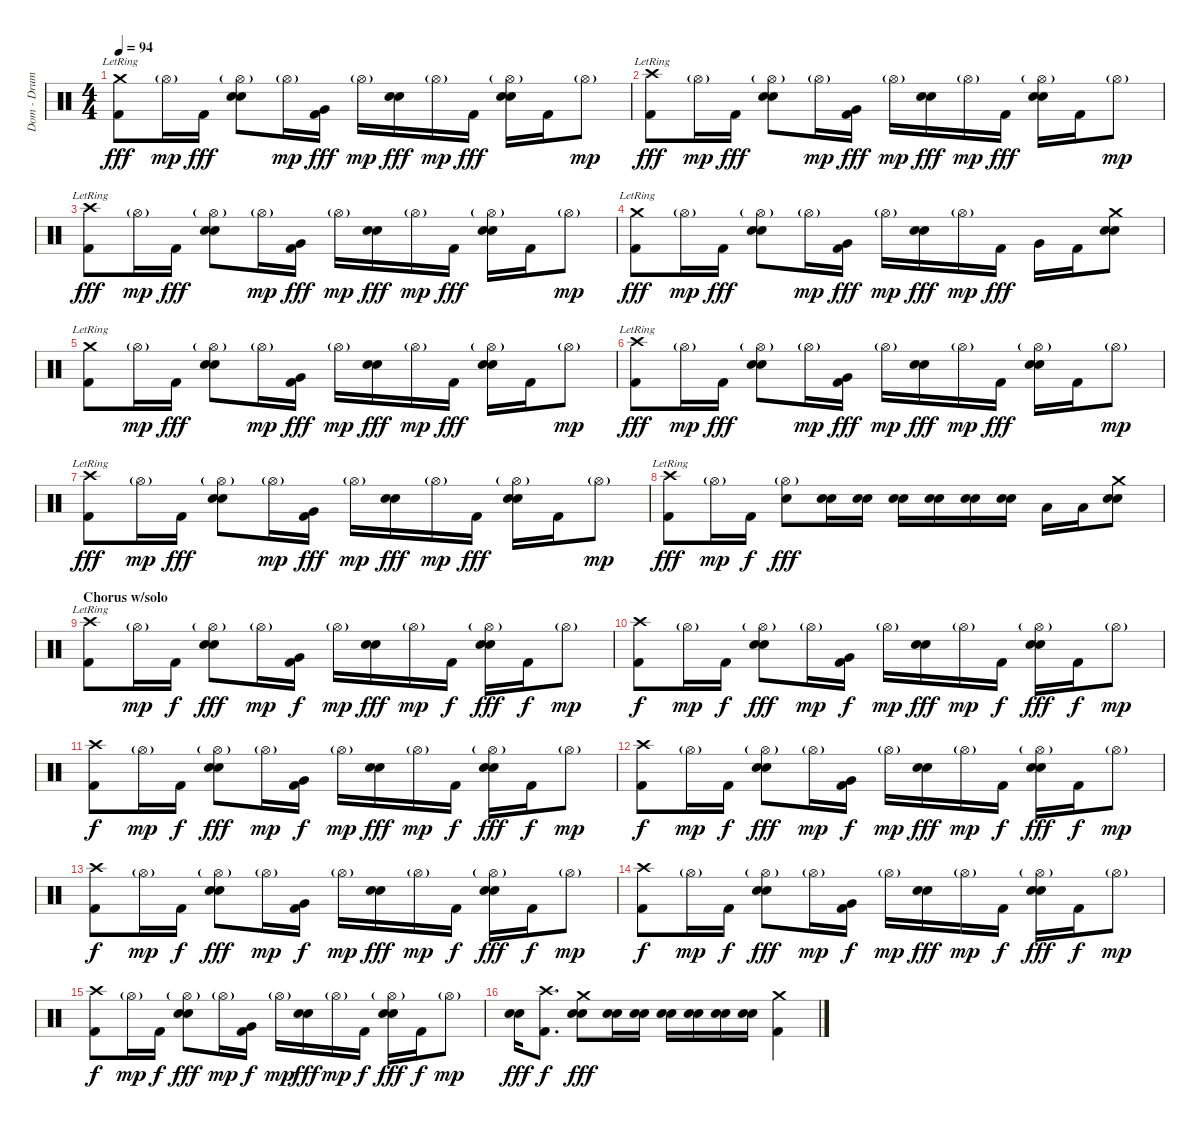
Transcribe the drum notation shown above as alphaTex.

\track ("Dom - Drums" "Dom - Drum") {instrument percussion}
\staff {score}
\articulation defaults
\ts (4 4)
\tempo 94
\clef neutral
\ks c
("Crash medium (hit)"{lr} "Kick (hit) 2").8{dy fff} "Hi-Hat (open)"{g}.16{dy mp} "Kick (hit) 2".16{dy fff} ("Hi-Hat (open)"{g} "Electric Snare (hit)" "Snare (hit) 2").8 "Hi-Hat (open)"{g}.16{dy mp} ("Very Low Tom (hit)" "Kick (hit) 2").16{dy fff} "Hi-Hat (open)"{g}.16{dy mp} ("Electric Snare (hit)" "Snare (hit) 2").16{dy fff} "Hi-Hat (open)"{g}.16{dy mp} "Kick (hit) 2".16{dy fff} ("Hi-Hat (open)"{g} "Electric Snare (hit)" "Snare (hit) 2").16 "Kick (hit) 2".16 "Hi-Hat (open)"{g}.8{dy mp} |
("Crash high (hit)"{lr} "Kick (hit) 2").8{dy fff} "Hi-Hat (open)"{g}.16{dy mp} "Kick (hit) 2".16{dy fff} ("Hi-Hat (open)"{g} "Electric Snare (hit)" "Snare (hit) 2").8 "Hi-Hat (open)"{g}.16{dy mp} ("Very Low Tom (hit)" "Kick (hit) 2").16{dy fff} "Hi-Hat (open)"{g}.16{dy mp} ("Electric Snare (hit)" "Snare (hit) 2").16{dy fff} "Hi-Hat (open)"{g}.16{dy mp} "Kick (hit) 2".16{dy fff} ("Hi-Hat (open)"{g} "Electric Snare (hit)" "Snare (hit) 2").16 "Kick (hit) 2".16 "Hi-Hat (open)"{g}.8{dy mp} |
("Crash high (hit)"{lr} "Kick (hit) 2").8{dy fff} "Hi-Hat (open)"{g}.16{dy mp} "Kick (hit) 2".16{dy fff} ("Hi-Hat (open)"{g} "Electric Snare (hit)" "Snare (hit) 2").8 "Hi-Hat (open)"{g}.16{dy mp} ("Very Low Tom (hit)" "Kick (hit) 2").16{dy fff} "Hi-Hat (open)"{g}.16{dy mp} ("Electric Snare (hit)" "Snare (hit) 2").16{dy fff} "Hi-Hat (open)"{g}.16{dy mp} "Kick (hit) 2".16{dy fff} ("Hi-Hat (open)"{g} "Electric Snare (hit)" "Snare (hit) 2").16 "Kick (hit) 2".16 "Hi-Hat (open)"{g}.8{dy mp} |
("Crash medium (hit)"{lr} "Kick (hit) 2").8{dy fff} "Hi-Hat (open)"{g}.16{dy mp} "Kick (hit) 2".16{dy fff} ("Hi-Hat (open)"{g} "Electric Snare (hit)" "Snare (hit) 2").8 "Hi-Hat (open)"{g}.16{dy mp} ("Very Low Tom (hit)" "Kick (hit) 2").16{dy fff} "Hi-Hat (open)"{g}.16{dy mp} ("Electric Snare (hit)" "Snare (hit) 2").16{dy fff} "Hi-Hat (open)"{g}.16{dy mp} "Kick (hit) 2".16{dy fff} "Very Low Tom (hit)".16 "Kick (hit) 2".16 ("Crash medium (hit)" "Electric Snare (hit)" "Snare (hit) 2").8 |
("Crash medium (hit)"{lr} "Kick (hit) 2").8 "Hi-Hat (open)"{g}.16{dy mp} "Kick (hit) 2".16{dy fff} ("Hi-Hat (open)"{g} "Electric Snare (hit)" "Snare (hit) 2").8 "Hi-Hat (open)"{g}.16{dy mp} ("Very Low Tom (hit)" "Kick (hit) 2").16{dy fff} "Hi-Hat (open)"{g}.16{dy mp} ("Electric Snare (hit)" "Snare (hit) 2").16{dy fff} "Hi-Hat (open)"{g}.16{dy mp} "Kick (hit) 2".16{dy fff} ("Hi-Hat (open)"{g} "Electric Snare (hit)" "Snare (hit) 2").16 "Kick (hit) 2".16 "Hi-Hat (open)"{g}.8{dy mp} |
("Crash high (hit)"{lr} "Kick (hit) 2").8{dy fff} "Hi-Hat (open)"{g}.16{dy mp} "Kick (hit) 2".16{dy fff} ("Hi-Hat (open)"{g} "Electric Snare (hit)" "Snare (hit) 2").8 "Hi-Hat (open)"{g}.16{dy mp} ("Very Low Tom (hit)" "Kick (hit) 2").16{dy fff} "Hi-Hat (open)"{g}.16{dy mp} ("Electric Snare (hit)" "Snare (hit) 2").16{dy fff} "Hi-Hat (open)"{g}.16{dy mp} "Kick (hit) 2".16{dy fff} ("Hi-Hat (open)"{g} "Electric Snare (hit)" "Snare (hit) 2").16 "Kick (hit) 2".16 "Hi-Hat (open)"{g}.8{dy mp} |
("Crash high (hit)"{lr} "Kick (hit) 2").8{dy fff} "Hi-Hat (open)"{g}.16{dy mp} "Kick (hit) 2".16{dy fff} ("Hi-Hat (open)"{g} "Electric Snare (hit)" "Snare (hit) 2").8 "Hi-Hat (open)"{g}.16{dy mp} ("Very Low Tom (hit)" "Kick (hit) 2").16{dy fff} "Hi-Hat (open)"{g}.16{dy mp} ("Electric Snare (hit)" "Snare (hit) 2").16{dy fff} "Hi-Hat (open)"{g}.16{dy mp} "Kick (hit) 2".16{dy fff} ("Hi-Hat (open)"{g} "Electric Snare (hit)" "Snare (hit) 2").16 "Kick (hit) 2".16 "Hi-Hat (open)"{g}.8{dy mp} |
("Crash high (hit)"{lr} "Kick (hit) 2").8{dy fff} "Hi-Hat (open)"{g}.16{dy mp} "Kick (hit) 2".16{dy f} ("Hi-Hat (open)"{g} "Snare (hit) 2").8{dy fff} ("Electric Snare (hit)" "Snare (hit) 2").16 ("Electric Snare (hit)" "Snare (hit) 2").16 ("Electric Snare (hit)" "Snare (hit) 2").16 ("Electric Snare (hit)" "Snare (hit) 2").16 ("Electric Snare (hit)" "Snare (hit) 2").16 ("Electric Snare (hit)" "Snare (hit) 2").16 "Low Tom (hit)".16 "Low Tom (hit)".16 ("Crash medium (hit)" "Electric Snare (hit)" "Snare (hit) 2").8 |
\section ("" "Chorus w/solo")
("Crash high (hit)"{lr} "Kick (hit) 2").8 "Hi-Hat (open)"{g}.16{dy mp} "Kick (hit) 2".16{dy f} ("Hi-Hat (open)"{g} "Electric Snare (hit)" "Snare (hit) 2").8{dy fff} "Hi-Hat (open)"{g}.16{dy mp} ("Very Low Tom (hit)" "Kick (hit) 2").16{dy f} "Hi-Hat (open)"{g}.16{dy mp} ("Electric Snare (hit)" "Snare (hit) 2").16{dy fff} "Hi-Hat (open)"{g}.16{dy mp} "Kick (hit) 2".16{dy f} ("Hi-Hat (open)"{g} "Electric Snare (hit)" "Snare (hit) 2").16{dy fff} "Kick (hit) 2".16{dy f} "Hi-Hat (open)"{g}.8{dy mp} |
("Crash high (hit)" "Kick (hit) 2").8{dy f} "Hi-Hat (open)"{g}.16{dy mp} "Kick (hit) 2".16{dy f} ("Hi-Hat (open)"{g} "Electric Snare (hit)" "Snare (hit) 2").8{dy fff} "Hi-Hat (open)"{g}.16{dy mp} ("Very Low Tom (hit)" "Kick (hit) 2").16{dy f} "Hi-Hat (open)"{g}.16{dy mp} ("Electric Snare (hit)" "Snare (hit) 2").16{dy fff} "Hi-Hat (open)"{g}.16{dy mp} "Kick (hit) 2".16{dy f} ("Hi-Hat (open)"{g} "Electric Snare (hit)" "Snare (hit) 2").16{dy fff} "Kick (hit) 2".16{dy f} "Hi-Hat (open)"{g}.8{dy mp} |
("Crash high (hit)" "Kick (hit) 2").8{dy f} "Hi-Hat (open)"{g}.16{dy mp} "Kick (hit) 2".16{dy f} ("Hi-Hat (open)"{g} "Electric Snare (hit)" "Snare (hit) 2").8{dy fff} "Hi-Hat (open)"{g}.16{dy mp} ("Very Low Tom (hit)" "Kick (hit) 2").16{dy f} "Hi-Hat (open)"{g}.16{dy mp} ("Electric Snare (hit)" "Snare (hit) 2").16{dy fff} "Hi-Hat (open)"{g}.16{dy mp} "Kick (hit) 2".16{dy f} ("Hi-Hat (open)"{g} "Electric Snare (hit)" "Snare (hit) 2").16{dy fff} "Kick (hit) 2".16{dy f} "Hi-Hat (open)"{g}.8{dy mp} |
("Crash high (hit)" "Kick (hit) 2").8{dy f} "Hi-Hat (open)"{g}.16{dy mp} "Kick (hit) 2".16{dy f} ("Hi-Hat (open)"{g} "Electric Snare (hit)" "Snare (hit) 2").8{dy fff} "Hi-Hat (open)"{g}.16{dy mp} ("Very Low Tom (hit)" "Kick (hit) 2").16{dy f} "Hi-Hat (open)"{g}.16{dy mp} ("Electric Snare (hit)" "Snare (hit) 2").16{dy fff} "Hi-Hat (open)"{g}.16{dy mp} "Kick (hit) 2".16{dy f} ("Hi-Hat (open)"{g} "Electric Snare (hit)" "Snare (hit) 2").16{dy fff} "Kick (hit) 2".16{dy f} "Hi-Hat (open)"{g}.8{dy mp} |
("Crash high (hit)" "Kick (hit) 2").8{dy f} "Hi-Hat (open)"{g}.16{dy mp} "Kick (hit) 2".16{dy f} ("Hi-Hat (open)"{g} "Electric Snare (hit)" "Snare (hit) 2").8{dy fff} "Hi-Hat (open)"{g}.16{dy mp} ("Very Low Tom (hit)" "Kick (hit) 2").16{dy f} "Hi-Hat (open)"{g}.16{dy mp} ("Electric Snare (hit)" "Snare (hit) 2").16{dy fff} "Hi-Hat (open)"{g}.16{dy mp} "Kick (hit) 2".16{dy f} ("Hi-Hat (open)"{g} "Electric Snare (hit)" "Snare (hit) 2").16{dy fff} "Kick (hit) 2".16{dy f} "Hi-Hat (open)"{g}.8{dy mp} |
("Crash high (hit)" "Kick (hit) 2").8{dy f} "Hi-Hat (open)"{g}.16{dy mp} "Kick (hit) 2".16{dy f} ("Hi-Hat (open)"{g} "Electric Snare (hit)" "Snare (hit) 2").8{dy fff} "Hi-Hat (open)"{g}.16{dy mp} ("Very Low Tom (hit)" "Kick (hit) 2").16{dy f} "Hi-Hat (open)"{g}.16{dy mp} ("Electric Snare (hit)" "Snare (hit) 2").16{dy fff} "Hi-Hat (open)"{g}.16{dy mp} "Kick (hit) 2".16{dy f} ("Hi-Hat (open)"{g} "Electric Snare (hit)" "Snare (hit) 2").16{dy fff} "Kick (hit) 2".16{dy f} "Hi-Hat (open)"{g}.8{dy mp} |
("Crash high (hit)" "Kick (hit) 2").8{dy f} "Hi-Hat (open)"{g}.16{dy mp} "Kick (hit) 2".16{dy f} ("Hi-Hat (open)"{g} "Electric Snare (hit)" "Snare (hit) 2").8{dy fff} "Hi-Hat (open)"{g}.16{dy mp} ("Very Low Tom (hit)" "Kick (hit) 2").16{dy f} "Hi-Hat (open)"{g}.16{dy mp} ("Electric Snare (hit)" "Snare (hit) 2").16{dy fff} "Hi-Hat (open)"{g}.16{dy mp} "Kick (hit) 2".16{dy f} ("Hi-Hat (open)"{g} "Electric Snare (hit)" "Snare (hit) 2").16{dy fff} "Kick (hit) 2".16{dy f} "Hi-Hat (open)"{g}.8{dy mp} |
("Electric Snare (hit)" "Snare (hit) 2").16{dy fff} ("Crash high (hit)" "Kick (hit) 2").8{d dy f} ("Crash medium (hit)" "Electric Snare (hit)" "Snare (hit) 2").8{dy fff} ("Electric Snare (hit)" "Snare (hit) 2").16 ("Electric Snare (hit)" "Snare (hit) 2").16 ("Electric Snare (hit)" "Snare (hit) 2").16 ("Electric Snare (hit)" "Snare (hit) 2").16 ("Electric Snare (hit)" "Snare (hit) 2").16 ("Electric Snare (hit)" "Snare (hit) 2").16 ("Crash medium (hit)" "Kick (hit) 2").4
